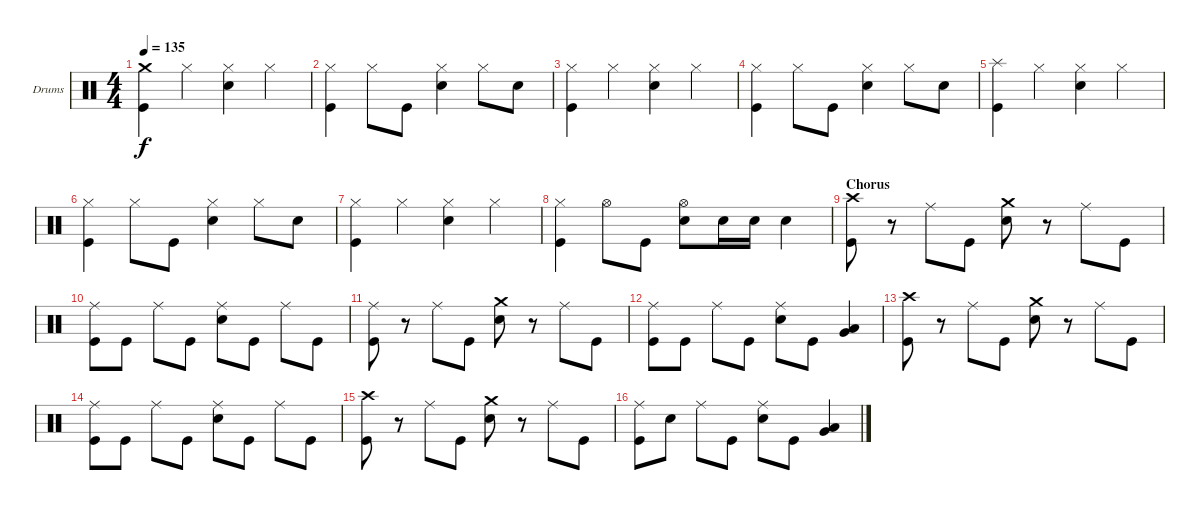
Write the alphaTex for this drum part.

\defaultSystemsLayout 4
\bracketExtendMode groupsimilarinstruments
\firstSystemTrackNameOrientation horizontal
\otherSystemsTrackNameOrientation horizontal
\track ("Drumkit" "Drums") {instrument percussion}
\staff {score}
\articulation defaults
\ts (4 4)
\tempo 135
\clef neutral
\scale
0.5
\ks c
("Crash medium (hit)" "Kick (hit)").4{dy f} "Hi-Hat (closed)".4 ("Hi-Hat (closed)" "Snare (hit) 2").4 "Hi-Hat (closed)".4 |
\scale
0.5 ("Hi-Hat (closed)" "Kick (hit)").4 "Hi-Hat (closed)".8 "Kick (hit)".8 ("Hi-Hat (closed)" "Snare (hit) 2").4 "Hi-Hat (closed)".8 "Snare (hit) 2".8 |
\scale
0.5 ("Hi-Hat (closed)" "Kick (hit)").4 "Hi-Hat (closed)".4 ("Hi-Hat (closed)" "Snare (hit) 2").4 "Hi-Hat (closed)".4 |
\scale
0.5 ("Hi-Hat (closed)" "Kick (hit)").4 "Hi-Hat (closed)".8 "Kick (hit)".8 ("Hi-Hat (closed)" "Snare (hit) 2").4 "Hi-Hat (closed)".8 "Snare (hit) 2".8 |
\scale
0.5 ("Splash (hit)" "Kick (hit)").4 "Hi-Hat (closed)".4 ("Hi-Hat (closed)" "Snare (hit) 2").4 "Hi-Hat (closed)".4 |
\scale
0.5 ("Hi-Hat (closed)" "Kick (hit)").4 "Hi-Hat (closed)".8 "Kick (hit)".8 ("Hi-Hat (closed)" "Snare (hit) 2").4 "Hi-Hat (closed)".8 "Snare (hit) 2".8 |
\scale
0.5 ("Hi-Hat (closed)" "Kick (hit)").4 "Hi-Hat (closed)".4 ("Hi-Hat (closed)" "Snare (hit) 2").4 "Hi-Hat (closed)".4 |
\scale
0.5 ("Hi-Hat (closed)" "Kick (hit)").4 "Hi-Hat (open)".8 "Kick (hit)".8 ("Hi-Hat (open)" "Snare (hit) 2").8 "Snare (hit) 2".16 "Snare (hit) 2".16 "Snare (hit) 2".4 |
\section ("" "Chorus")
\scale
0.5 ("Crash high (hit)" "Kick (hit)").8 r.8 "Ride (middle)".8 "Kick (hit)".8 ("Crash medium (hit)" "Snare (hit) 2").8 r.8 "Ride (middle)".8 "Kick (hit)".8 |
\scale
0.5 ("Ride (middle)" "Kick (hit)").8 "Kick (hit)".8 "Ride (middle)".8 "Kick (hit)".8 ("Ride (middle)" "Snare (hit) 2").8 "Kick (hit)".8 "Ride (middle)".8 "Kick (hit)".8 |
\scale
0.5 ("Ride (middle)" "Kick (hit)").8 r.8 "Ride (middle)".8 "Kick (hit)".8 ("Crash medium (hit)" "Snare (hit) 2").8 r.8 "Ride (middle)".8 "Kick (hit)".8 |
\scale
0.5 ("Ride (middle)" "Kick (hit)").8 "Kick (hit)".8 "Ride (middle)".8 "Kick (hit)".8 ("Ride (middle)" "Snare (hit) 2").8 "Kick (hit)".8 ("Low Tom (hit)" "Very Low Tom (hit)").4 |
\scale
0.5 ("Crash high (hit)" "Kick (hit)").8 r.8 "Ride (middle)".8 "Kick (hit)".8 ("Crash medium (hit)" "Snare (hit) 2").8 r.8 "Ride (middle)".8 "Kick (hit)".8 |
\scale
0.5 ("Ride (middle)" "Kick (hit)").8 "Kick (hit)".8 "Ride (middle)".8 "Kick (hit)".8 ("Ride (middle)" "Snare (hit) 2").8 "Kick (hit)".8 "Ride (middle)".8 "Kick (hit)".8 |
\scale
0.5 ("Crash high (hit)" "Kick (hit)").8 r.8 "Ride (middle)".8 "Kick (hit)".8 ("Crash medium (hit)" "Snare (hit) 2").8 r.8 "Ride (middle)".8 "Kick (hit)".8 |
\scale
0.5 ("Ride (middle)" "Kick (hit)").8 "Snare (hit) 2".8 "Ride (middle)".8 "Kick (hit)".8 ("Ride (middle)" "Snare (hit) 2").8 "Kick (hit)".8 ("Low Tom (hit)" "Very Low Tom (hit)").4
